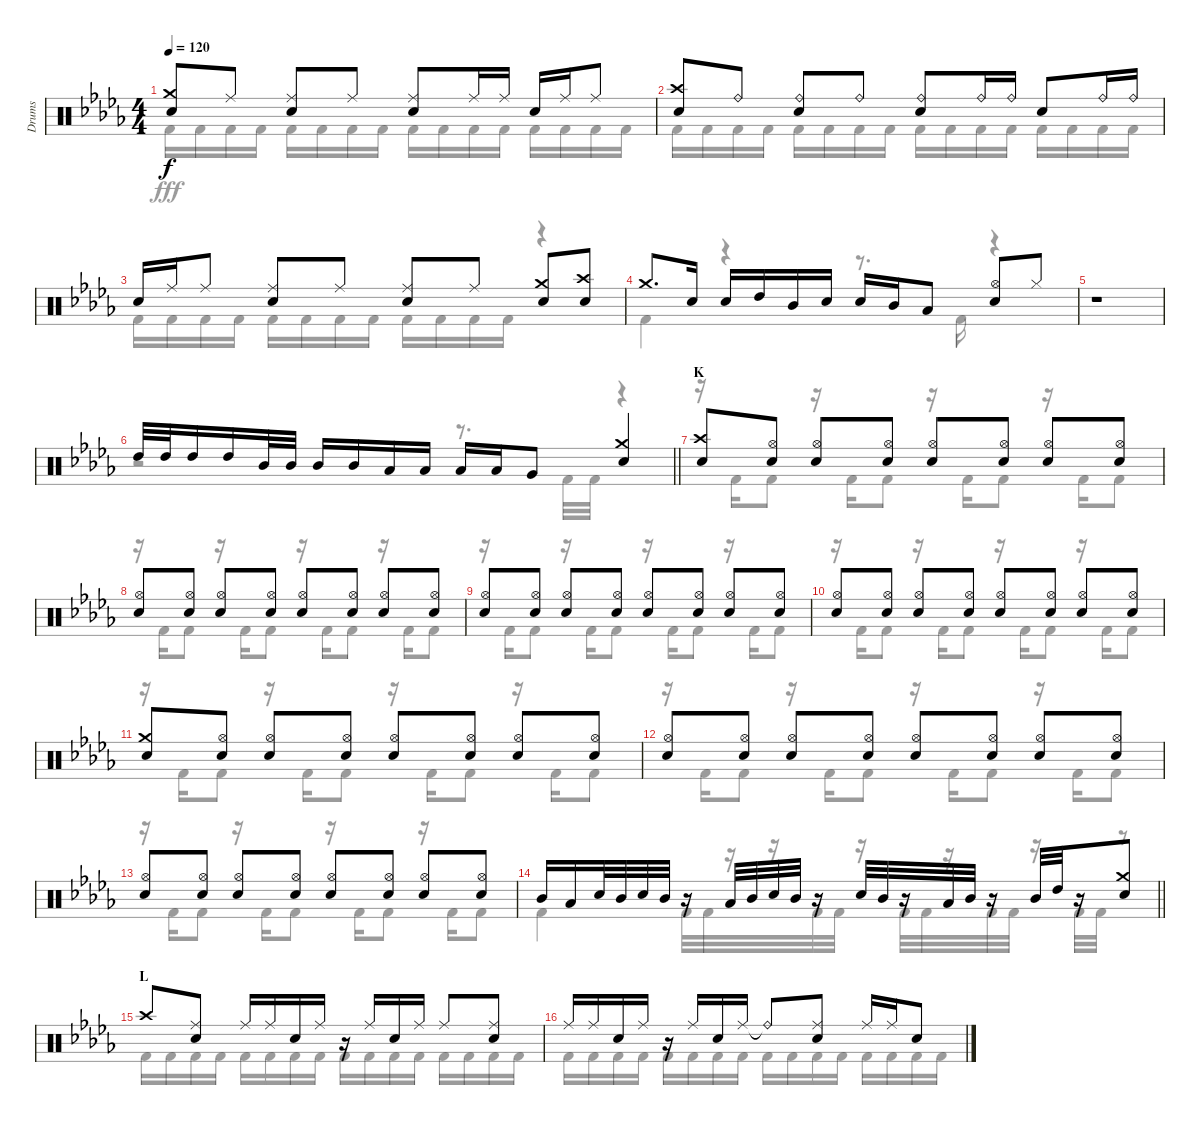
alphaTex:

\track ("Drums" "Drums") {instrument percussion}
\staff {score}
\articulation defaults
\voice
\ts (4 4)
\tempo 120
\clef neutral
\ks db
("Crash medium (hit)" "Snare (hit) 2").8{dy f} "Ride (middle)".8 ("Ride (middle)" "Snare (hit) 2").8 "Ride (middle)".8 ("Ride (middle)" "Snare (hit) 2").8 "Ride (middle)".16 "Ride (middle)".16 "Snare (hit) 2".16 "Ride (middle)".16 "Ride (middle)".8 |
("Crash high (hit)" "Snare (hit) 2").8 "Ride (bell)".8 ("Ride (bell)" "Snare (hit) 2").8 "Ride (bell)".8 ("Ride (bell)" "Snare (hit) 2").8 "Ride (bell)".16 "Ride (bell)".16 "Snare (hit) 2".8 "Ride (bell)".16 "Ride (bell)".16 |
"Snare (hit) 2".16 "Ride (middle)".16 "Ride (middle)".8 ("Ride (middle)" "Snare (hit) 2").8 "Ride (middle)".8 ("Ride (middle)" "Snare (hit) 2").8 "Ride (middle)".8 ("Crash medium (hit)" "Snare (hit) 2").8 ("Crash high (hit)" "Snare (hit) 2").8 |
"Crash medium (hit)".8{d} "Snare (hit) 2".16 "Snare (hit) 2".16 "High Tom (hit)".16 "Mid Tom (hit)".16 "Snare (hit) 2".16 "Snare (hit) 2".16 "Mid Tom (hit)".16 "Low Tom (hit)".8 ("Hi-Hat (open)" "Snare (hit) 2").8 "Hi-Hat (closed)".8 |
r.1 |
\barLineRight lightlight "High Tom (hit)".32 "High Tom (hit)".32 "High Tom (hit)".16 "High Tom (hit)".16 "Mid Tom (hit)".32 "Mid Tom (hit)".32 "Mid Tom (hit)".16 "Mid Tom (hit)".16 "Low Tom (hit)".16 "Low Tom (hit)".16 "Low Tom (hit)".16 "Low Tom (hit)".16 "Very Low Tom (hit)".8
("Crash medium (hit)" "Snare (hit) 2").4 |
\section ("" "K")
("Crash high (hit)" "Snare (hit) 2").8 ("Hi-Hat (open)" "Snare (hit) 2").8 ("Hi-Hat (open)" "Snare (hit) 2").8 ("Hi-Hat (open)" "Snare (hit) 2").8 ("Hi-Hat (open)" "Snare (hit) 2").8 ("Hi-Hat (open)" "Snare (hit) 2").8 ("Hi-Hat (open)" "Snare (hit) 2").8 ("Hi-Hat (open)" "Snare (hit) 2").8 |
("Hi-Hat (open)" "Snare (hit) 2").8 ("Hi-Hat (open)" "Snare (hit) 2").8 ("Hi-Hat (open)" "Snare (hit) 2").8 ("Hi-Hat (open)" "Snare (hit) 2").8 ("Hi-Hat (open)" "Snare (hit) 2").8 ("Hi-Hat (open)" "Snare (hit) 2").8 ("Hi-Hat (open)" "Snare (hit) 2").8 ("Hi-Hat (open)" "Snare (hit) 2").8 |
("Hi-Hat (open)" "Snare (hit) 2").8 ("Hi-Hat (open)" "Snare (hit) 2").8 ("Hi-Hat (open)" "Snare (hit) 2").8 ("Hi-Hat (open)" "Snare (hit) 2").8 ("Hi-Hat (open)" "Snare (hit) 2").8 ("Hi-Hat (open)" "Snare (hit) 2").8 ("Hi-Hat (open)" "Snare (hit) 2").8 ("Hi-Hat (open)" "Snare (hit) 2").8 |
("Hi-Hat (open)" "Snare (hit) 2").8 ("Hi-Hat (open)" "Snare (hit) 2").8 ("Hi-Hat (open)" "Snare (hit) 2").8 ("Hi-Hat (open)" "Snare (hit) 2").8 ("Hi-Hat (open)" "Snare (hit) 2").8 ("Hi-Hat (open)" "Snare (hit) 2").8 ("Hi-Hat (open)" "Snare (hit) 2").8 ("Hi-Hat (open)" "Snare (hit) 2").8 |
("Crash medium (hit)" "Snare (hit) 2").8 ("Hi-Hat (open)" "Snare (hit) 2").8 ("Hi-Hat (open)" "Snare (hit) 2").8 ("Hi-Hat (open)" "Snare (hit) 2").8 ("Hi-Hat (open)" "Snare (hit) 2").8 ("Hi-Hat (open)" "Snare (hit) 2").8 ("Hi-Hat (open)" "Snare (hit) 2").8 ("Hi-Hat (open)" "Snare (hit) 2").8 |
("Hi-Hat (open)" "Snare (hit) 2").8 ("Hi-Hat (open)" "Snare (hit) 2").8 ("Hi-Hat (open)" "Snare (hit) 2").8 ("Hi-Hat (open)" "Snare (hit) 2").8 ("Hi-Hat (open)" "Snare (hit) 2").8 ("Hi-Hat (open)" "Snare (hit) 2").8 ("Hi-Hat (open)" "Snare (hit) 2").8 ("Hi-Hat (open)" "Snare (hit) 2").8 |
("Hi-Hat (open)" "Snare (hit) 2").8 ("Hi-Hat (open)" "Snare (hit) 2").8 ("Hi-Hat (open)" "Snare (hit) 2").8 ("Hi-Hat (open)" "Snare (hit) 2").8 ("Hi-Hat (open)" "Snare (hit) 2").8 ("Hi-Hat (open)" "Snare (hit) 2").8 ("Hi-Hat (open)" "Snare (hit) 2").8 ("Hi-Hat (open)" "Snare (hit) 2").8 |
\barLineRight lightlight "Mid Tom (hit)".16 "Low Tom (hit)".16 "Snare (hit) 2".32 "Mid Tom (hit)".32 "Snare (hit) 2".32 "Mid Tom (hit)".32
r.16 "Low Tom (hit)".32 "Mid Tom (hit)".32 "Snare (hit) 2".32 "Mid Tom (hit)".32 r.16 "Snare (hit) 2".32 "Mid Tom (hit)".32 r.16 "Low Tom (hit)".32 "Mid Tom (hit)".32 r.16 "Mid Tom (hit)".32 "High Tom (hit)".32 r.16 ("Crash medium (hit)" "Snare (hit) 2").8 |
\section ("" "L")
"Crash high (hit)".8 ("Ride (middle)" "Snare (hit) 2").8 "Ride (middle)".16 "Ride (middle)".16 "Snare (hit) 2".16 "Ride (middle)".16 r.16 "Ride (middle)".16 "Snare (hit) 2".16 "Ride (middle)".16 "Ride (middle)".8 ("Ride (middle)" "Snare (hit) 2").8 |
"Ride (middle)".16 "Ride (middle)".16 "Snare (hit) 2".16 "Ride (middle)".16 r.16 "Ride (middle)".16 "Snare (hit) 2".16 "Ride (middle)".16 "Ride (bell)"{t}.8 ("Ride (middle)" "Snare (hit) 2").8 "Ride (middle)".16 "Ride (middle)".16 "Snare (hit) 2".8
\voice
\clef neutral
\ottava regular
\simile none
\ks db "Kick (hit) 2".16{dy fff} "Kick (hit) 2".16 "Kick (hit) 2".16 "Kick (hit) 2".16 "Kick (hit) 2".16 "Kick (hit) 2".16 "Kick (hit) 2".16 "Kick (hit) 2".16 "Kick (hit) 2".16 "Kick (hit) 2".16 "Kick (hit) 2".16 "Kick (hit) 2".16 "Kick (hit) 2".16 "Kick (hit) 2".16 "Kick (hit) 2".16 "Kick (hit) 2".16
|
"Kick (hit) 2".16 "Kick (hit) 2".16 "Kick (hit) 2".16 "Kick (hit) 2".16 "Kick (hit) 2".16 "Kick (hit) 2".16 "Kick (hit) 2".16 "Kick (hit) 2".16 "Kick (hit) 2".16 "Kick (hit) 2".16 "Kick (hit) 2".16 "Kick (hit) 2".16 "Kick (hit) 2".16 "Kick (hit) 2".16 "Kick (hit) 2".16 "Kick (hit) 2".16 |
"Kick (hit) 2".16 "Kick (hit) 2".16 "Kick (hit) 2".16 "Kick (hit) 2".16 "Kick (hit) 2".16 "Kick (hit) 2".16 "Kick (hit) 2".16 "Kick (hit) 2".16 "Kick (hit) 2".16 "Kick (hit) 2".16 "Kick (hit) 2".16 "Kick (hit) 2".16 r.4 |
"Kick (hit) 2".4 r.4 r.8{d} "Kick (hit) 2".16 r.4 |
r.1 |
\barLineRight lightlight
r.2 r.8{d} "Kick (hit) 2".32 "Kick (hit) 2".32 r.4 |
r.16 "Kick (hit) 2".16 "Kick (hit) 2".8 r.16 "Kick (hit) 2".16 "Kick (hit) 2".8 r.16 "Kick (hit) 2".16 "Kick (hit) 2".8 r.16 "Kick (hit) 2".16 "Kick (hit) 2".8 |
r.16 "Kick (hit) 2".16 "Kick (hit) 2".8 r.16 "Kick (hit) 2".16 "Kick (hit) 2".8 r.16 "Kick (hit) 2".16 "Kick (hit) 2".8 r.16 "Kick (hit) 2".16 "Kick (hit) 2".8 |
r.16 "Kick (hit) 2".16 "Kick (hit) 2".8 r.16 "Kick (hit) 2".16 "Kick (hit) 2".8 r.16 "Kick (hit) 2".16 "Kick (hit) 2".8 r.16 "Kick (hit) 2".16 "Kick (hit) 2".8 |
r.16 "Kick (hit) 2".16 "Kick (hit) 2".8 r.16 "Kick (hit) 2".16 "Kick (hit) 2".8 r.16 "Kick (hit) 2".16 "Kick (hit) 2".8 r.16 "Kick (hit) 2".16 "Kick (hit) 2".8 |
r.16 "Kick (hit) 2".16 "Kick (hit) 2".8 r.16 "Kick (hit) 2".16 "Kick (hit) 2".8 r.16 "Kick (hit) 2".16 "Kick (hit) 2".8 r.16 "Kick (hit) 2".16 "Kick (hit) 2".8 |
r.16 "Kick (hit) 2".16 "Kick (hit) 2".8 r.16 "Kick (hit) 2".16 "Kick (hit) 2".8 r.16 "Kick (hit) 2".16 "Kick (hit) 2".8 r.16 "Kick (hit) 2".16 "Kick (hit) 2".8 |
r.16 "Kick (hit) 2".16 "Kick (hit) 2".8 r.16 "Kick (hit) 2".16 "Kick (hit) 2".8 r.16 "Kick (hit) 2".16 "Kick (hit) 2".8 r.16 "Kick (hit) 2".16 "Kick (hit) 2".8 |
\barLineRight lightlight "Kick (hit) 2".4 "Kick (hit) 2".32 "Kick (hit) 2".32
r.16 r.16 "Kick (hit) 2".32 "Kick (hit) 2".32 r.16 "Kick (hit) 2".32 "Kick (hit) 2".32 r.16 "Kick (hit) 2".32 "Kick (hit) 2".32 r.16 "Kick (hit) 2".32 "Kick (hit) 2".32 r.8 |
"Kick (hit) 2".16 "Kick (hit) 2".16 "Kick (hit) 2".16 "Kick (hit) 2".16 "Kick (hit) 2".16 "Kick (hit) 2".16 "Kick (hit) 2".16 "Kick (hit) 2".16 "Kick (hit) 2".16 "Kick (hit) 2".16 "Kick (hit) 2".16 "Kick (hit) 2".16 "Kick (hit) 2".16 "Kick (hit) 2".16 "Kick (hit) 2".16 "Kick (hit) 2".16 |
"Kick (hit) 2".16 "Kick (hit) 2".16 "Kick (hit) 2".16 "Kick (hit) 2".16 "Kick (hit) 2".16 "Kick (hit) 2".16 "Kick (hit) 2".16 "Kick (hit) 2".16 "Kick (hit) 2".16 "Kick (hit) 2".16 "Kick (hit) 2".16 "Kick (hit) 2".16 "Kick (hit) 2".16 "Kick (hit) 2".16 "Kick (hit) 2".16 "Kick (hit) 2".16
